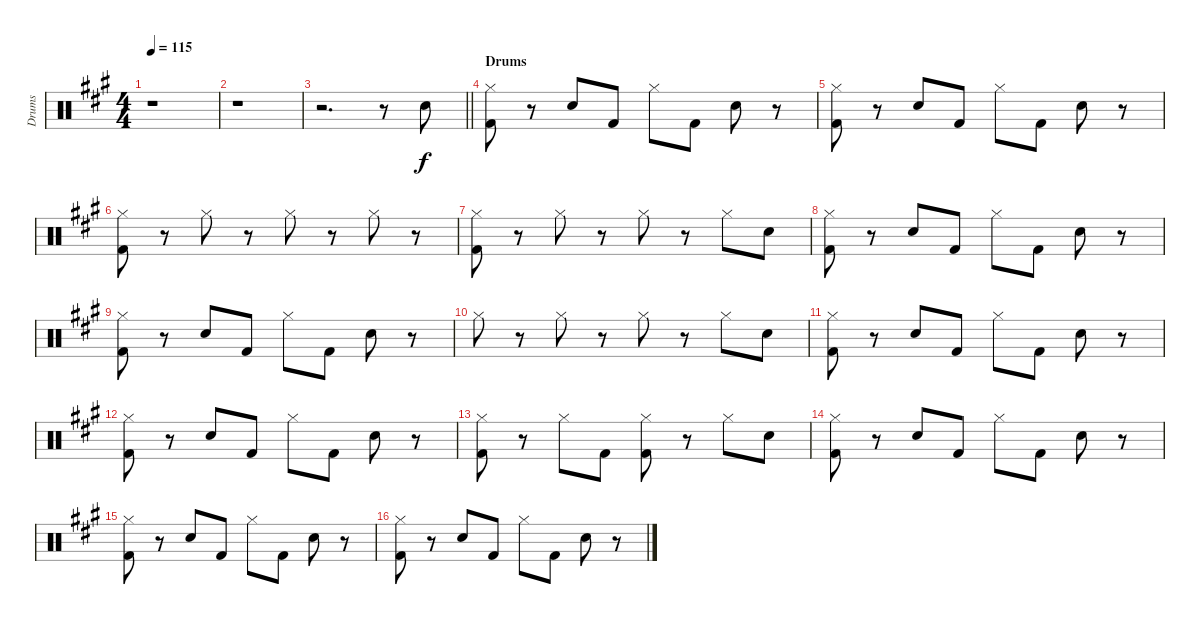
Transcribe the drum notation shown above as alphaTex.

\track ("Drums" "Drums") {instrument percussion}
\staff {score}
\articulation defaults
\ts (4 4)
\tempo 115
\clef neutral
\ks f#minor
r.1{dy f} |
r.1 |
\barLineRight lightlight
r.2{d} r.8 "Snare (hit) 2".8 |
\section ("" "Drums")
("Kick (hit) 2" "Hi-Hat (closed)").8 r.8 "Snare (hit) 2".8 "Kick (hit) 2".8 "Hi-Hat (closed)".8 "Kick (hit) 2".8 "Snare (hit) 2".8 r.8 |
("Kick (hit) 2" "Hi-Hat (closed)").8 r.8 "Snare (hit) 2".8 "Kick (hit) 2".8 "Hi-Hat (closed)".8 "Kick (hit) 2".8 "Snare (hit) 2".8 r.8 |
("Kick (hit) 2" "Hi-Hat (closed)").8 r.8 "Hi-Hat (closed)".8 r.8 "Hi-Hat (closed)".8 r.8 "Hi-Hat (closed)".8 r.8 |
("Kick (hit) 2" "Hi-Hat (closed)").8 r.8 "Hi-Hat (closed)".8 r.8 "Hi-Hat (closed)".8 r.8 "Hi-Hat (closed)".8 "Snare (hit) 2".8 |
("Kick (hit) 2" "Hi-Hat (closed)").8 r.8 "Snare (hit) 2".8 "Kick (hit) 2".8 "Hi-Hat (closed)".8 "Kick (hit) 2".8 "Snare (hit) 2".8 r.8 |
("Kick (hit) 2" "Hi-Hat (closed)").8 r.8 "Snare (hit) 2".8 "Kick (hit) 2".8 "Hi-Hat (closed)".8 "Kick (hit) 2".8 "Snare (hit) 2".8 r.8 |
"Hi-Hat (closed)".8 r.8 "Hi-Hat (closed)".8 r.8 "Hi-Hat (closed)".8 r.8 "Hi-Hat (closed)".8 "Snare (hit) 2".8 |
("Kick (hit) 2" "Hi-Hat (closed)").8 r.8 "Snare (hit) 2".8 "Kick (hit) 2".8 "Hi-Hat (closed)".8 "Kick (hit) 2".8 "Snare (hit) 2".8 r.8 |
("Kick (hit) 2" "Hi-Hat (closed)").8 r.8 "Snare (hit) 2".8 "Kick (hit) 2".8 "Hi-Hat (closed)".8 "Kick (hit) 2".8 "Snare (hit) 2".8 r.8 |
("Kick (hit) 2" "Hi-Hat (closed)").8 r.8 "Hi-Hat (closed)".8 "Kick (hit) 2".8 ("Hi-Hat (closed)" "Kick (hit) 2").8 r.8 "Hi-Hat (closed)".8 "Snare (hit) 2".8 |
("Kick (hit) 2" "Hi-Hat (closed)").8 r.8 "Snare (hit) 2".8 "Kick (hit) 2".8 "Hi-Hat (closed)".8 "Kick (hit) 2".8 "Snare (hit) 2".8 r.8 |
("Kick (hit) 2" "Hi-Hat (closed)").8 r.8 "Snare (hit) 2".8 "Kick (hit) 2".8 "Hi-Hat (closed)".8 "Kick (hit) 2".8 "Snare (hit) 2".8 r.8 |
("Kick (hit) 2" "Hi-Hat (closed)").8 r.8 "Snare (hit) 2".8 "Kick (hit) 2".8 "Hi-Hat (closed)".8 "Kick (hit) 2".8 "Snare (hit) 2".8 r.8
